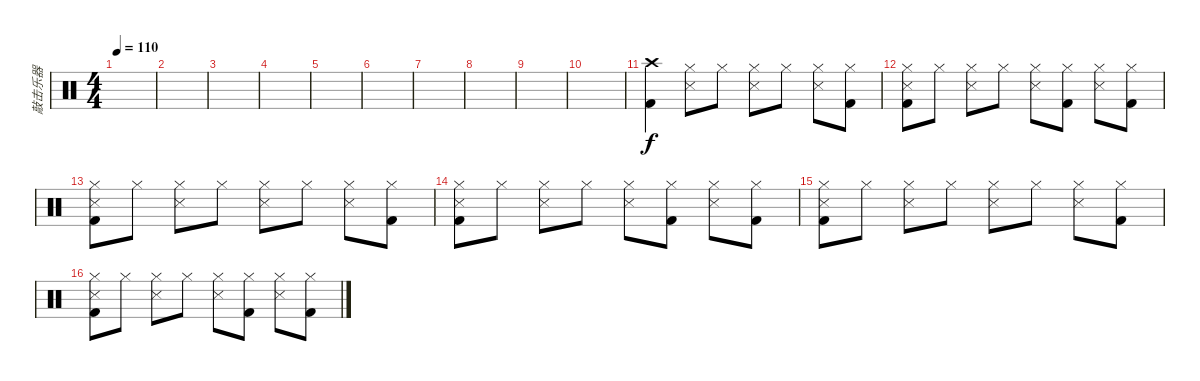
\track ("敲击乐器" "敲击乐器") {instrument percussion}
\staff {score}
\articulation defaults
\ts (4 4)
\tempo 110
\clef neutral
\ks c
|
|
|
|
|
|
|
|
|
|
("Crash high (hit)" "Kick (hit) 2").4 ("Hi-Hat (closed)" "Metronome (hit)").8 "Hi-Hat (closed)".8 ("Hi-Hat (closed)" "Metronome (hit)").8 "Hi-Hat (closed)".8 ("Hi-Hat (closed)" "Metronome (hit)").8 ("Hi-Hat (closed)" "Kick (hit) 2").8 |
("Hi-Hat (closed)" "Metronome (hit)" "Kick (hit) 2").8 "Hi-Hat (closed)".8 ("Hi-Hat (closed)" "Metronome (hit)").8 "Hi-Hat (closed)".8 ("Hi-Hat (closed)" "Metronome (hit)").8 ("Hi-Hat (closed)" "Kick (hit) 2").8 ("Hi-Hat (closed)" "Metronome (hit)").8 ("Hi-Hat (closed)" "Kick (hit) 2").8 |
("Hi-Hat (closed)" "Metronome (hit)" "Kick (hit) 2").8 "Hi-Hat (closed)".8 ("Hi-Hat (closed)" "Metronome (hit)").8 "Hi-Hat (closed)".8 ("Hi-Hat (closed)" "Metronome (hit)").8 "Hi-Hat (closed)".8 ("Hi-Hat (closed)" "Metronome (hit)").8 ("Hi-Hat (closed)" "Kick (hit) 2").8 |
("Hi-Hat (closed)" "Metronome (hit)" "Kick (hit) 2").8 "Hi-Hat (closed)".8 ("Hi-Hat (closed)" "Metronome (hit)").8 "Hi-Hat (closed)".8 ("Hi-Hat (closed)" "Metronome (hit)").8 ("Hi-Hat (closed)" "Kick (hit) 2").8 ("Hi-Hat (closed)" "Metronome (hit)").8 ("Hi-Hat (closed)" "Kick (hit) 2").8 |
("Hi-Hat (closed)" "Metronome (hit)" "Kick (hit) 2").8 "Hi-Hat (closed)".8 ("Hi-Hat (closed)" "Metronome (hit)").8 "Hi-Hat (closed)".8 ("Hi-Hat (closed)" "Metronome (hit)").8 "Hi-Hat (closed)".8 ("Hi-Hat (closed)" "Metronome (hit)").8 ("Hi-Hat (closed)" "Kick (hit) 2").8 |
("Hi-Hat (closed)" "Metronome (hit)" "Kick (hit) 2").8 "Hi-Hat (closed)".8 ("Hi-Hat (closed)" "Metronome (hit)").8 "Hi-Hat (closed)".8 ("Hi-Hat (closed)" "Metronome (hit)").8 ("Hi-Hat (closed)" "Kick (hit) 2").8 ("Hi-Hat (closed)" "Metronome (hit)").8 ("Hi-Hat (closed)" "Kick (hit) 2").8
